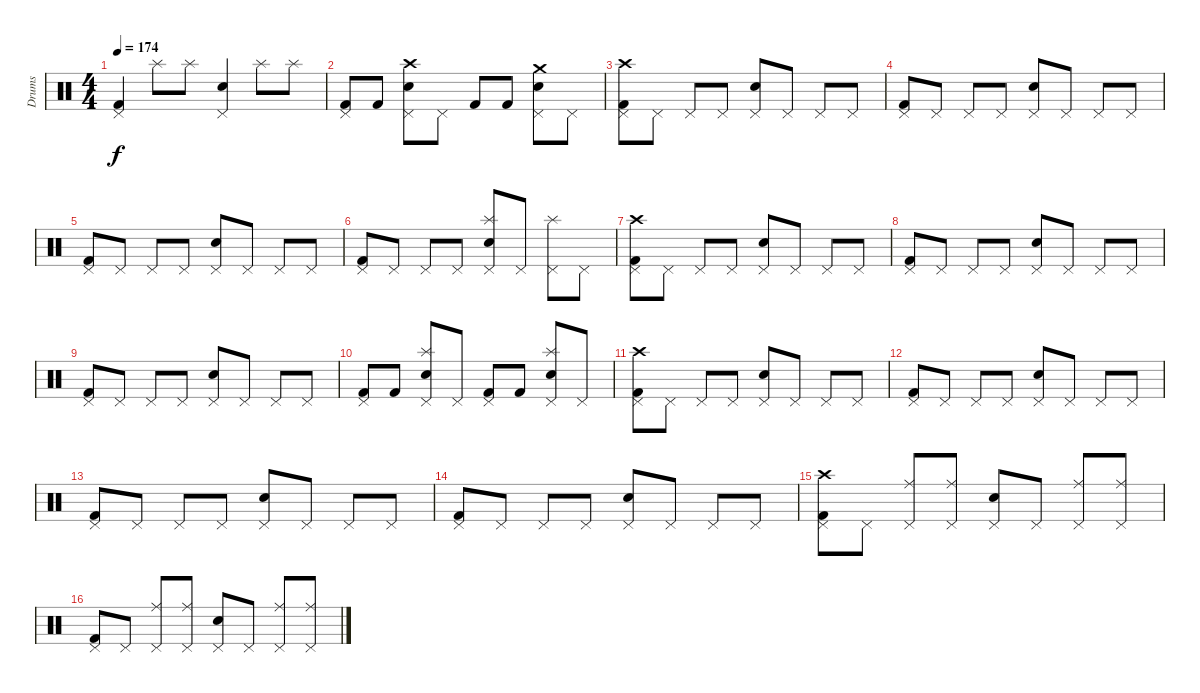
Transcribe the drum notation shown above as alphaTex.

\track ("Drums" "Drums") {instrument percussion}
\staff {score}
\articulation defaults
\ts (4 4)
\tempo 174
\clef neutral
\ks c
("Kick (hit) 2" "Pedal Hi-Hat (hit)").4{dy f} "Splash (hit)".8 "Splash (hit)".8 ("Snare (hit) 2" "Pedal Hi-Hat (hit)").4 "Splash (hit)".8 "Splash (hit)".8 |
("Kick (hit) 2" "Pedal Hi-Hat (hit)").8 "Kick (hit) 2".8 ("Snare (hit) 2" "Pedal Hi-Hat (hit)" "Crash high (hit)").8 "Pedal Hi-Hat (hit)".8 "Kick (hit) 2".8 "Kick (hit) 2".8 ("Snare (hit) 2" "Pedal Hi-Hat (hit)" "Crash medium (hit)").8 "Pedal Hi-Hat (hit)".8 |
("Kick (hit) 2" "Pedal Hi-Hat (hit)" "Crash high (hit)").8 "Pedal Hi-Hat (hit)".8 "Pedal Hi-Hat (hit)".8 "Pedal Hi-Hat (hit)".8 ("Snare (hit) 2" "Pedal Hi-Hat (hit)").8 "Pedal Hi-Hat (hit)".8 "Pedal Hi-Hat (hit)".8 "Pedal Hi-Hat (hit)".8 |
("Kick (hit) 2" "Pedal Hi-Hat (hit)").8 "Pedal Hi-Hat (hit)".8 "Pedal Hi-Hat (hit)".8 "Pedal Hi-Hat (hit)".8 ("Snare (hit) 2" "Pedal Hi-Hat (hit)").8 "Pedal Hi-Hat (hit)".8 "Pedal Hi-Hat (hit)".8 "Pedal Hi-Hat (hit)".8 |
("Kick (hit) 2" "Pedal Hi-Hat (hit)").8 "Pedal Hi-Hat (hit)".8 "Pedal Hi-Hat (hit)".8 "Pedal Hi-Hat (hit)".8 ("Snare (hit) 2" "Pedal Hi-Hat (hit)").8 "Pedal Hi-Hat (hit)".8 "Pedal Hi-Hat (hit)".8 "Pedal Hi-Hat (hit)".8 |
("Kick (hit) 2" "Pedal Hi-Hat (hit)").8 "Pedal Hi-Hat (hit)".8 "Pedal Hi-Hat (hit)".8 "Pedal Hi-Hat (hit)".8 ("Snare (hit) 2" "Pedal Hi-Hat (hit)" "Splash (hit)").8 "Pedal Hi-Hat (hit)".8 ("Pedal Hi-Hat (hit)" "Splash (hit)").8 "Pedal Hi-Hat (hit)".8 |
("Kick (hit) 2" "Pedal Hi-Hat (hit)" "Crash high (hit)").8 "Pedal Hi-Hat (hit)".8 "Pedal Hi-Hat (hit)".8 "Pedal Hi-Hat (hit)".8 ("Snare (hit) 2" "Pedal Hi-Hat (hit)").8 "Pedal Hi-Hat (hit)".8 "Pedal Hi-Hat (hit)".8 "Pedal Hi-Hat (hit)".8 |
("Kick (hit) 2" "Pedal Hi-Hat (hit)").8 "Pedal Hi-Hat (hit)".8 "Pedal Hi-Hat (hit)".8 "Pedal Hi-Hat (hit)".8 ("Snare (hit) 2" "Pedal Hi-Hat (hit)").8 "Pedal Hi-Hat (hit)".8 "Pedal Hi-Hat (hit)".8 "Pedal Hi-Hat (hit)".8 |
("Kick (hit) 2" "Pedal Hi-Hat (hit)").8 "Pedal Hi-Hat (hit)".8 "Pedal Hi-Hat (hit)".8 "Pedal Hi-Hat (hit)".8 ("Snare (hit) 2" "Pedal Hi-Hat (hit)").8 "Pedal Hi-Hat (hit)".8 "Pedal Hi-Hat (hit)".8 "Pedal Hi-Hat (hit)".8 |
("Kick (hit) 2" "Pedal Hi-Hat (hit)").8 "Kick (hit) 2".8 ("Snare (hit) 2" "Pedal Hi-Hat (hit)" "Splash (hit)").8 "Pedal Hi-Hat (hit)".8 ("Kick (hit) 2" "Pedal Hi-Hat (hit)").8 "Kick (hit) 2".8 ("Snare (hit) 2" "Pedal Hi-Hat (hit)" "Splash (hit)").8 "Pedal Hi-Hat (hit)".8 |
("Kick (hit) 2" "Pedal Hi-Hat (hit)" "Crash high (hit)").8 "Pedal Hi-Hat (hit)".8 "Pedal Hi-Hat (hit)".8 "Pedal Hi-Hat (hit)".8 ("Snare (hit) 2" "Pedal Hi-Hat (hit)").8 "Pedal Hi-Hat (hit)".8 "Pedal Hi-Hat (hit)".8 "Pedal Hi-Hat (hit)".8 |
("Kick (hit) 2" "Pedal Hi-Hat (hit)").8 "Pedal Hi-Hat (hit)".8 "Pedal Hi-Hat (hit)".8 "Pedal Hi-Hat (hit)".8 ("Snare (hit) 2" "Pedal Hi-Hat (hit)").8 "Pedal Hi-Hat (hit)".8 "Pedal Hi-Hat (hit)".8 "Pedal Hi-Hat (hit)".8 |
("Kick (hit) 2" "Pedal Hi-Hat (hit)").8 "Pedal Hi-Hat (hit)".8 "Pedal Hi-Hat (hit)".8 "Pedal Hi-Hat (hit)".8 ("Snare (hit) 2" "Pedal Hi-Hat (hit)").8 "Pedal Hi-Hat (hit)".8 "Pedal Hi-Hat (hit)".8 "Pedal Hi-Hat (hit)".8 |
("Kick (hit) 2" "Pedal Hi-Hat (hit)").8 "Pedal Hi-Hat (hit)".8 "Pedal Hi-Hat (hit)".8 "Pedal Hi-Hat (hit)".8 ("Snare (hit) 2" "Pedal Hi-Hat (hit)").8 "Pedal Hi-Hat (hit)".8 "Pedal Hi-Hat (hit)".8 "Pedal Hi-Hat (hit)".8 |
("Kick (hit) 2" "Pedal Hi-Hat (hit)" "Crash high (hit)").8 "Pedal Hi-Hat (hit)".8 ("Pedal Hi-Hat (hit)" "Ride (middle)").8 ("Pedal Hi-Hat (hit)" "Ride (middle)").8 ("Snare (hit) 2" "Pedal Hi-Hat (hit)").8 "Pedal Hi-Hat (hit)".8 ("Pedal Hi-Hat (hit)" "Ride (middle)").8 ("Pedal Hi-Hat (hit)" "Ride (middle)").8 |
("Kick (hit) 2" "Pedal Hi-Hat (hit)").8 "Pedal Hi-Hat (hit)".8 ("Pedal Hi-Hat (hit)" "Ride (middle)").8 ("Pedal Hi-Hat (hit)" "Ride (middle)").8 ("Snare (hit) 2" "Pedal Hi-Hat (hit)").8 "Pedal Hi-Hat (hit)".8 ("Pedal Hi-Hat (hit)" "Ride (middle)").8 ("Pedal Hi-Hat (hit)" "Ride (middle)").8
